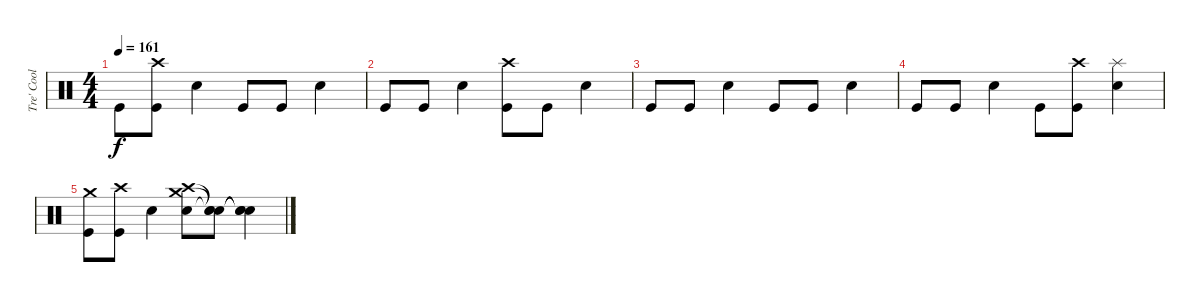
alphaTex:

\track ("Tre' Cool" "Tre' Cool") {instrument percussion}
\staff {score}
\articulation defaults
\ts (4 4)
\tempo 161
\clef neutral
\ks c "Kick (hit)".8{dy f}
("Kick (hit)" "Crash high (hit)").8 "Snare (hit) 2".4 "Kick (hit)".8 "Kick (hit)".8 "Snare (hit) 2".4 |
"Kick (hit)".8 "Kick (hit)".8 "Snare (hit) 2".4 ("Kick (hit)" "Crash high (hit)").8 "Kick (hit)".8 "Snare (hit) 2".4 |
"Kick (hit)".8 "Kick (hit)".8 "Snare (hit) 2".4 "Kick (hit)".8 "Kick (hit)".8 "Snare (hit) 2".4 |
"Kick (hit)".8 "Kick (hit)".8 "Snare (hit) 2".4 "Kick (hit)".8 ("Kick (hit)" "Crash high (hit)").8 ("Snare (hit) 2" "Splash (hit)").4 |
("Kick (hit)" "Crash medium (hit)").8 ("Kick (hit)" "Crash high (hit)").8 "Snare (hit) 2".4 ("Snare (hit) 2" "Crash high (hit)" "Crash medium (hit)").8 ("Snare (hit)"{t} "Snare (hit)"{t} "Snare (hit)"{t}).8 ("Snare (hit)"{t} "Snare (hit)"{t} "Snare (hit)"{t}).4
